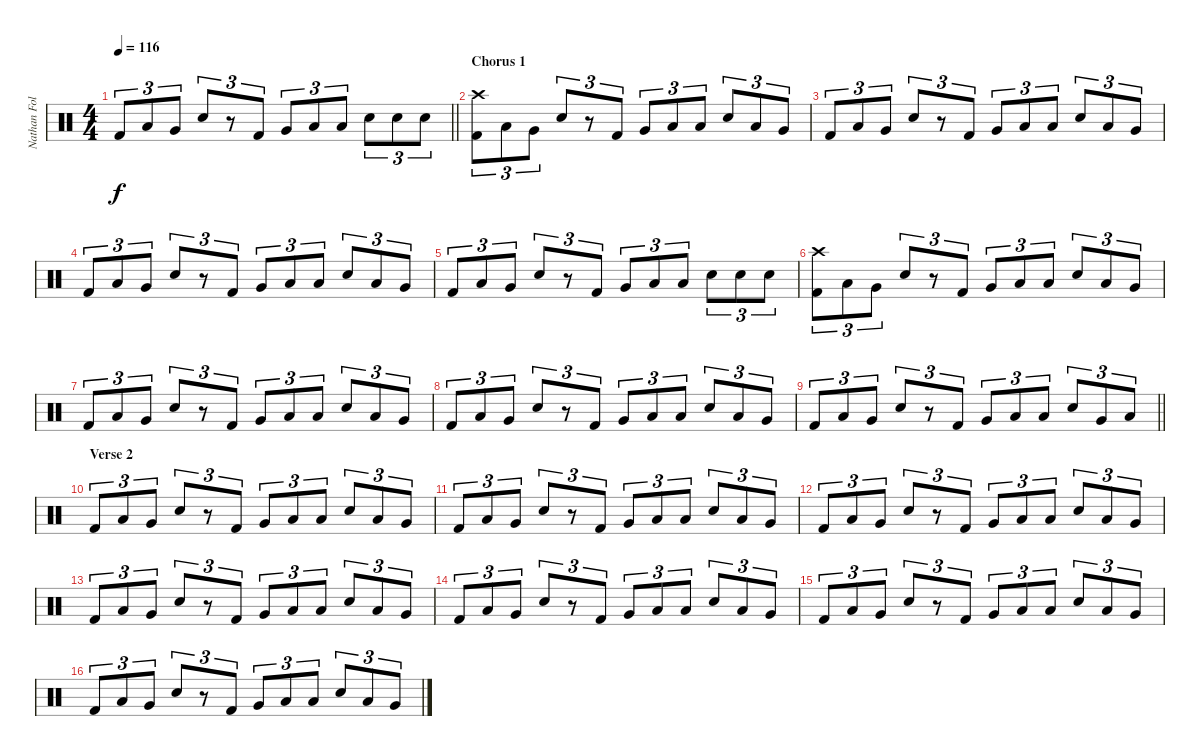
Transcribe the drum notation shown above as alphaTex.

\track ("Nathan Followill" "Nathan Fol") {instrument percussion}
\staff {score}
\articulation defaults
\ts (4 4)
\tempo 116
\clef neutral
\barLineRight lightlight
\ks c "Kick (hit) 2".8{tu (3 2) dy f} "Low Tom (hit)".8{tu (3 2)} "Very Low Tom (hit)".8{tu (3 2)} "Electric Snare (hit)".8{tu (3 2)}
r.8{tu (3 2)} "Kick (hit) 2".8{tu (3 2)} "Very Low Tom (hit)".8{tu (3 2)} "Low Tom (hit)".8{tu (3 2)} "Low Floor Tom (hit)".8{tu (3 2)} "Electric Snare (hit)".8{tu (3 2)} "Electric Snare (hit)".8{tu (3 2)} "Electric Snare (hit)".8{tu (3 2)} |
\section ("" "Chorus 1")
("Crash high (hit)" "Kick (hit) 2").8{tu (3 2)} "Low Tom (hit)".8{tu (3 2)} "Very Low Tom (hit)".8{tu (3 2)} "Electric Snare (hit)".8{tu (3 2)} r.8{tu (3 2)} "Kick (hit) 2".8{tu (3 2)} "Very Low Tom (hit)".8{tu (3 2)} "Low Tom (hit)".8{tu (3 2)} "Low Floor Tom (hit)".8{tu (3 2)} "Electric Snare (hit)".8{tu (3 2)} "Low Tom (hit)".8{tu (3 2)} "Very Low Tom (hit)".8{tu (3 2)} |
"Kick (hit) 2".8{tu (3 2)} "Low Tom (hit)".8{tu (3 2)} "Very Low Tom (hit)".8{tu (3 2)} "Electric Snare (hit)".8{tu (3 2)} r.8{tu (3 2)} "Kick (hit) 2".8{tu (3 2)} "Very Low Tom (hit)".8{tu (3 2)} "Low Tom (hit)".8{tu (3 2)} "Low Floor Tom (hit)".8{tu (3 2)} "Electric Snare (hit)".8{tu (3 2)} "Low Tom (hit)".8{tu (3 2)} "Very Low Tom (hit)".8{tu (3 2)} |
"Kick (hit) 2".8{tu (3 2)} "Low Tom (hit)".8{tu (3 2)} "Very Low Tom (hit)".8{tu (3 2)} "Electric Snare (hit)".8{tu (3 2)} r.8{tu (3 2)} "Kick (hit) 2".8{tu (3 2)} "Very Low Tom (hit)".8{tu (3 2)} "Low Tom (hit)".8{tu (3 2)} "Low Floor Tom (hit)".8{tu (3 2)} "Electric Snare (hit)".8{tu (3 2)} "Low Tom (hit)".8{tu (3 2)} "Very Low Tom (hit)".8{tu (3 2)} |
"Kick (hit) 2".8{tu (3 2)} "Low Tom (hit)".8{tu (3 2)} "Very Low Tom (hit)".8{tu (3 2)} "Electric Snare (hit)".8{tu (3 2)} r.8{tu (3 2)} "Kick (hit) 2".8{tu (3 2)} "Very Low Tom (hit)".8{tu (3 2)} "Low Tom (hit)".8{tu (3 2)} "Low Floor Tom (hit)".8{tu (3 2)} "Electric Snare (hit)".8{tu (3 2)} "Electric Snare (hit)".8{tu (3 2)} "Electric Snare (hit)".8{tu (3 2)} |
("Crash high (hit)" "Kick (hit) 2").8{tu (3 2)} "Low Tom (hit)".8{tu (3 2)} "Very Low Tom (hit)".8{tu (3 2)} "Electric Snare (hit)".8{tu (3 2)} r.8{tu (3 2)} "Kick (hit) 2".8{tu (3 2)} "Very Low Tom (hit)".8{tu (3 2)} "Low Tom (hit)".8{tu (3 2)} "Low Floor Tom (hit)".8{tu (3 2)} "Electric Snare (hit)".8{tu (3 2)} "Low Tom (hit)".8{tu (3 2)} "Very Low Tom (hit)".8{tu (3 2)} |
"Kick (hit) 2".8{tu (3 2)} "Low Tom (hit)".8{tu (3 2)} "Very Low Tom (hit)".8{tu (3 2)} "Electric Snare (hit)".8{tu (3 2)} r.8{tu (3 2)} "Kick (hit) 2".8{tu (3 2)} "Very Low Tom (hit)".8{tu (3 2)} "Low Tom (hit)".8{tu (3 2)} "Low Floor Tom (hit)".8{tu (3 2)} "Electric Snare (hit)".8{tu (3 2)} "Low Tom (hit)".8{tu (3 2)} "Very Low Tom (hit)".8{tu (3 2)} |
"Kick (hit) 2".8{tu (3 2)} "Low Tom (hit)".8{tu (3 2)} "Very Low Tom (hit)".8{tu (3 2)} "Electric Snare (hit)".8{tu (3 2)} r.8{tu (3 2)} "Kick (hit) 2".8{tu (3 2)} "Very Low Tom (hit)".8{tu (3 2)} "Low Tom (hit)".8{tu (3 2)} "Low Floor Tom (hit)".8{tu (3 2)} "Electric Snare (hit)".8{tu (3 2)} "Low Tom (hit)".8{tu (3 2)} "Very Low Tom (hit)".8{tu (3 2)} |
\barLineRight lightlight "Kick (hit) 2".8{tu (3 2)} "Low Tom (hit)".8{tu (3 2)} "Very Low Tom (hit)".8{tu (3 2)} "Electric Snare (hit)".8{tu (3 2)}
r.8{tu (3 2)} "Kick (hit) 2".8{tu (3 2)} "Very Low Tom (hit)".8{tu (3 2)} "Low Tom (hit)".8{tu (3 2)} "Low Floor Tom (hit)".8{tu (3 2)} "Electric Snare (hit)".8{tu (3 2)} "Very Low Tom (hit)".8{tu (3 2)} "Low Tom (hit)".8{tu (3 2)} |
\section ("" "Verse 2")
"Kick (hit) 2".8{tu (3 2)} "Low Tom (hit)".8{tu (3 2)} "Very Low Tom (hit)".8{tu (3 2)} "Electric Snare (hit)".8{tu (3 2)} r.8{tu (3 2)} "Kick (hit) 2".8{tu (3 2)} "Very Low Tom (hit)".8{tu (3 2)} "Low Tom (hit)".8{tu (3 2)} "Low Floor Tom (hit)".8{tu (3 2)} "Electric Snare (hit)".8{tu (3 2)} "Low Tom (hit)".8{tu (3 2)} "Very Low Tom (hit)".8{tu (3 2)} |
"Kick (hit) 2".8{tu (3 2)} "Low Tom (hit)".8{tu (3 2)} "Very Low Tom (hit)".8{tu (3 2)} "Electric Snare (hit)".8{tu (3 2)} r.8{tu (3 2)} "Kick (hit) 2".8{tu (3 2)} "Very Low Tom (hit)".8{tu (3 2)} "Low Tom (hit)".8{tu (3 2)} "Low Floor Tom (hit)".8{tu (3 2)} "Electric Snare (hit)".8{tu (3 2)} "Low Tom (hit)".8{tu (3 2)} "Very Low Tom (hit)".8{tu (3 2)} |
"Kick (hit) 2".8{tu (3 2)} "Low Tom (hit)".8{tu (3 2)} "Very Low Tom (hit)".8{tu (3 2)} "Electric Snare (hit)".8{tu (3 2)} r.8{tu (3 2)} "Kick (hit) 2".8{tu (3 2)} "Very Low Tom (hit)".8{tu (3 2)} "Low Tom (hit)".8{tu (3 2)} "Low Floor Tom (hit)".8{tu (3 2)} "Electric Snare (hit)".8{tu (3 2)} "Low Tom (hit)".8{tu (3 2)} "Very Low Tom (hit)".8{tu (3 2)} |
"Kick (hit) 2".8{tu (3 2)} "Low Tom (hit)".8{tu (3 2)} "Very Low Tom (hit)".8{tu (3 2)} "Electric Snare (hit)".8{tu (3 2)} r.8{tu (3 2)} "Kick (hit) 2".8{tu (3 2)} "Very Low Tom (hit)".8{tu (3 2)} "Low Tom (hit)".8{tu (3 2)} "Low Floor Tom (hit)".8{tu (3 2)} "Electric Snare (hit)".8{tu (3 2)} "Low Tom (hit)".8{tu (3 2)} "Very Low Tom (hit)".8{tu (3 2)} |
"Kick (hit) 2".8{tu (3 2)} "Low Tom (hit)".8{tu (3 2)} "Very Low Tom (hit)".8{tu (3 2)} "Electric Snare (hit)".8{tu (3 2)} r.8{tu (3 2)} "Kick (hit) 2".8{tu (3 2)} "Very Low Tom (hit)".8{tu (3 2)} "Low Tom (hit)".8{tu (3 2)} "Low Floor Tom (hit)".8{tu (3 2)} "Electric Snare (hit)".8{tu (3 2)} "Low Tom (hit)".8{tu (3 2)} "Very Low Tom (hit)".8{tu (3 2)} |
"Kick (hit) 2".8{tu (3 2)} "Low Tom (hit)".8{tu (3 2)} "Very Low Tom (hit)".8{tu (3 2)} "Electric Snare (hit)".8{tu (3 2)} r.8{tu (3 2)} "Kick (hit) 2".8{tu (3 2)} "Very Low Tom (hit)".8{tu (3 2)} "Low Tom (hit)".8{tu (3 2)} "Low Floor Tom (hit)".8{tu (3 2)} "Electric Snare (hit)".8{tu (3 2)} "Low Tom (hit)".8{tu (3 2)} "Very Low Tom (hit)".8{tu (3 2)} |
"Kick (hit) 2".8{tu (3 2)} "Low Tom (hit)".8{tu (3 2)} "Very Low Tom (hit)".8{tu (3 2)} "Electric Snare (hit)".8{tu (3 2)} r.8{tu (3 2)} "Kick (hit) 2".8{tu (3 2)} "Very Low Tom (hit)".8{tu (3 2)} "Low Tom (hit)".8{tu (3 2)} "Low Floor Tom (hit)".8{tu (3 2)} "Electric Snare (hit)".8{tu (3 2)} "Low Tom (hit)".8{tu (3 2)} "Very Low Tom (hit)".8{tu (3 2)}
